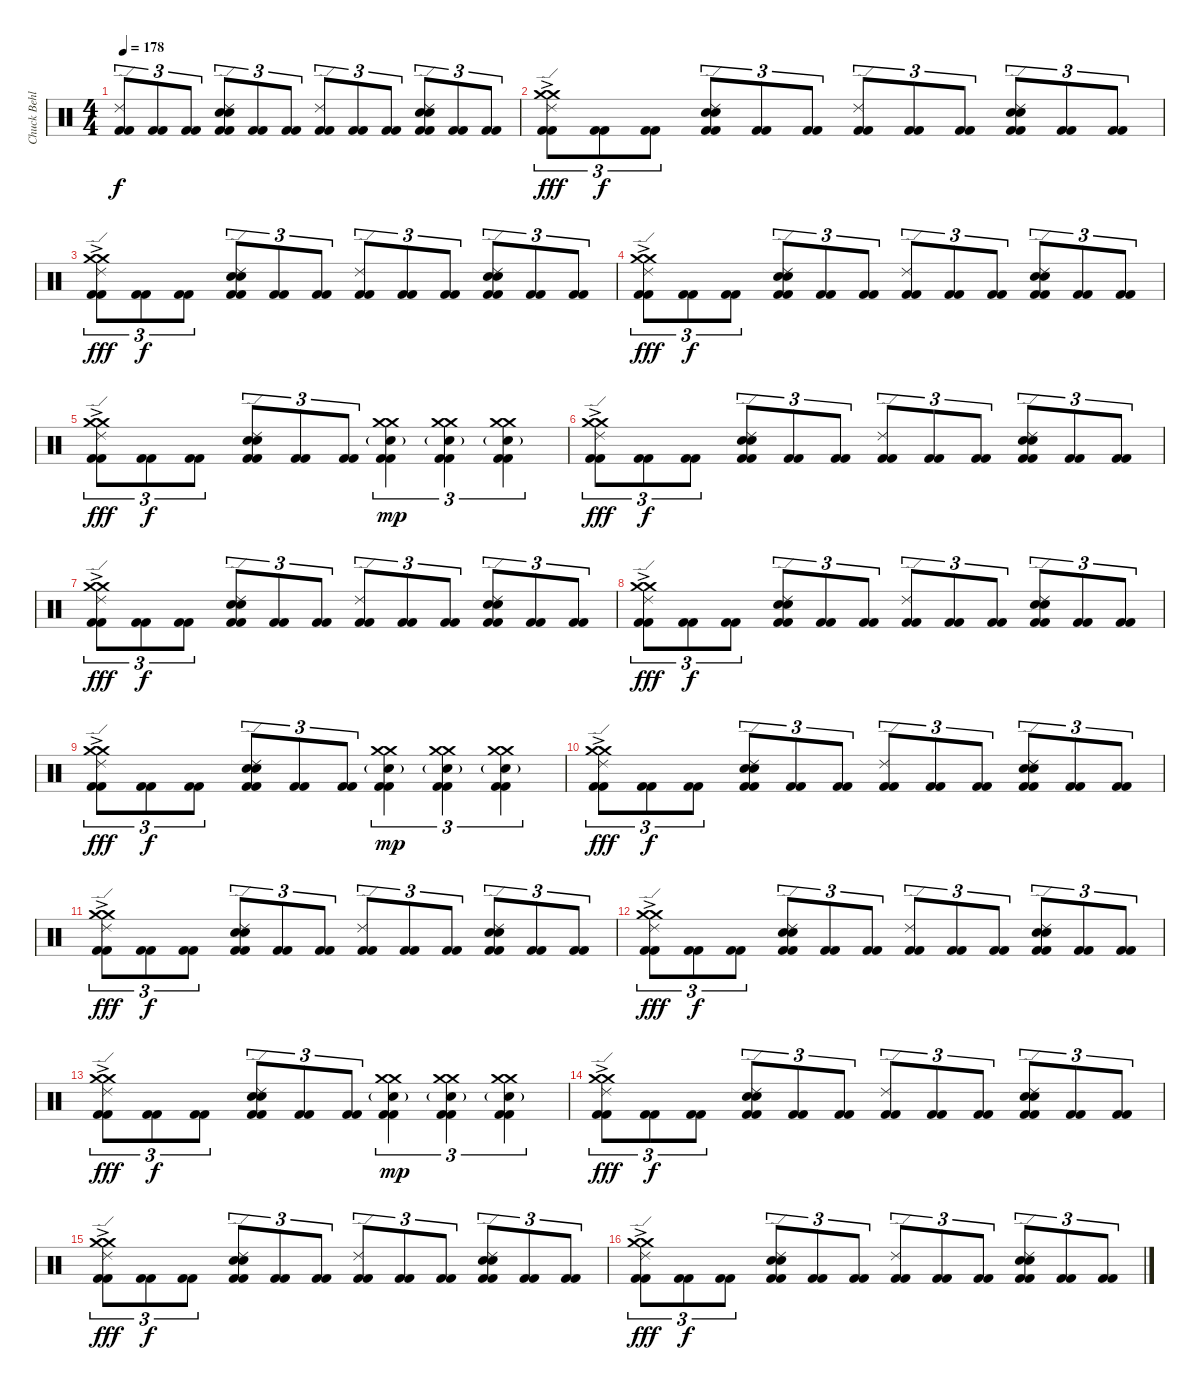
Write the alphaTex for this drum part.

\track ("Chuck Behler" "Chuck Behl") {instrument percussion}
\staff {score}
\articulation defaults
\ts (4 4)
\tempo 178
\clef neutral
\ks c
("Ride (edge) 2" "Kick (hit) 2" "Kick (hit) 2").8{tu (3 2) dy f} ("Kick (hit) 2" "Kick (hit) 2").8{tu (3 2)} ("Kick (hit) 2" "Kick (hit) 2").8{tu (3 2)} ("Ride (edge) 2" "Snare (hit) 2" "Electric Snare (hit)" "Kick (hit) 2" "Kick (hit) 2").8{tu (3 2)} ("Kick (hit) 2" "Kick (hit) 2").8{tu (3 2)} ("Kick (hit) 2" "Kick (hit) 2").8{tu (3 2)} ("Ride (edge) 2" "Kick (hit) 2" "Kick (hit) 2").8{tu (3 2)} ("Kick (hit) 2" "Kick (hit) 2").8{tu (3 2)} ("Kick (hit) 2" "Kick (hit) 2").8{tu (3 2)} ("Ride (edge) 2" "Snare (hit) 2" "Electric Snare (hit)" "Kick (hit) 2" "Kick (hit) 2").8{tu (3 2)} ("Kick (hit) 2" "Kick (hit) 2").8{tu (3 2)} ("Kick (hit) 2" "Kick (hit) 2").8{tu (3 2)} |
("Crash medium (hit)"{ac} "Crash medium (hit)"{ac} "Ride (edge) 2" "Kick (hit) 2" "Kick (hit) 2").8{tu (3 2) dy fff} ("Kick (hit) 2" "Kick (hit) 2").8{tu (3 2) dy f} ("Kick (hit) 2" "Kick (hit) 2").8{tu (3 2)} ("Ride (edge) 2" "Snare (hit) 2" "Electric Snare (hit)" "Kick (hit) 2" "Kick (hit) 2").8{tu (3 2)} ("Kick (hit) 2" "Kick (hit) 2").8{tu (3 2)} ("Kick (hit) 2" "Kick (hit) 2").8{tu (3 2)} ("Ride (edge) 2" "Kick (hit) 2" "Kick (hit) 2").8{tu (3 2)} ("Kick (hit) 2" "Kick (hit) 2").8{tu (3 2)} ("Kick (hit) 2" "Kick (hit) 2").8{tu (3 2)} ("Ride (edge) 2" "Snare (hit) 2" "Electric Snare (hit)" "Kick (hit) 2" "Kick (hit) 2").8{tu (3 2)} ("Kick (hit) 2" "Kick (hit) 2").8{tu (3 2)} ("Kick (hit) 2" "Kick (hit) 2").8{tu (3 2)} |
("Crash medium (hit)"{ac} "Crash medium (hit)"{ac} "Ride (edge) 2" "Kick (hit) 2" "Kick (hit) 2").8{tu (3 2) dy fff} ("Kick (hit) 2" "Kick (hit) 2").8{tu (3 2) dy f} ("Kick (hit) 2" "Kick (hit) 2").8{tu (3 2)} ("Ride (edge) 2" "Snare (hit) 2" "Electric Snare (hit)" "Kick (hit) 2" "Kick (hit) 2").8{tu (3 2)} ("Kick (hit) 2" "Kick (hit) 2").8{tu (3 2)} ("Kick (hit) 2" "Kick (hit) 2").8{tu (3 2)} ("Ride (edge) 2" "Kick (hit) 2" "Kick (hit) 2").8{tu (3 2)} ("Kick (hit) 2" "Kick (hit) 2").8{tu (3 2)} ("Kick (hit) 2" "Kick (hit) 2").8{tu (3 2)} ("Ride (edge) 2" "Snare (hit) 2" "Electric Snare (hit)" "Kick (hit) 2" "Kick (hit) 2").8{tu (3 2)} ("Kick (hit) 2" "Kick (hit) 2").8{tu (3 2)} ("Kick (hit) 2" "Kick (hit) 2").8{tu (3 2)} |
("Crash medium (hit)"{ac} "Crash medium (hit)"{ac} "Ride (edge) 2" "Kick (hit) 2" "Kick (hit) 2").8{tu (3 2) dy fff} ("Kick (hit) 2" "Kick (hit) 2").8{tu (3 2) dy f} ("Kick (hit) 2" "Kick (hit) 2").8{tu (3 2)} ("Ride (edge) 2" "Snare (hit) 2" "Electric Snare (hit)" "Kick (hit) 2" "Kick (hit) 2").8{tu (3 2)} ("Kick (hit) 2" "Kick (hit) 2").8{tu (3 2)} ("Kick (hit) 2" "Kick (hit) 2").8{tu (3 2)} ("Ride (edge) 2" "Kick (hit) 2" "Kick (hit) 2").8{tu (3 2)} ("Kick (hit) 2" "Kick (hit) 2").8{tu (3 2)} ("Kick (hit) 2" "Kick (hit) 2").8{tu (3 2)} ("Ride (edge) 2" "Snare (hit) 2" "Electric Snare (hit)" "Kick (hit) 2" "Kick (hit) 2").8{tu (3 2)} ("Kick (hit) 2" "Kick (hit) 2").8{tu (3 2)} ("Kick (hit) 2" "Kick (hit) 2").8{tu (3 2)} |
("Crash medium (hit)"{ac} "Crash medium (hit)"{ac} "Ride (edge) 2" "Kick (hit) 2" "Kick (hit) 2").8{tu (3 2) dy fff} ("Kick (hit) 2" "Kick (hit) 2").8{tu (3 2) dy f} ("Kick (hit) 2" "Kick (hit) 2").8{tu (3 2)} ("Ride (edge) 2" "Snare (hit) 2" "Electric Snare (hit)" "Kick (hit) 2" "Kick (hit) 2").8{tu (3 2)} ("Kick (hit) 2" "Kick (hit) 2").8{tu (3 2)} ("Kick (hit) 2" "Kick (hit) 2").8{tu (3 2)} ("Crash medium (hit)" "Crash medium (hit)" "Snare (hit) 2"{g} "Kick (hit) 2" "Kick (hit) 2").4{tu (3 2) dy mp} ("Crash medium (hit)" "Crash medium (hit)" "Snare (hit) 2"{g} "Kick (hit) 2" "Kick (hit) 2").4{tu (3 2)} ("Crash medium (hit)" "Crash medium (hit)" "Snare (hit) 2"{g} "Kick (hit) 2" "Kick (hit) 2").4{tu (3 2)} |
("Crash medium (hit)"{ac} "Crash medium (hit)"{ac} "Ride (edge) 2" "Kick (hit) 2" "Kick (hit) 2").8{tu (3 2) dy fff} ("Kick (hit) 2" "Kick (hit) 2").8{tu (3 2) dy f} ("Kick (hit) 2" "Kick (hit) 2").8{tu (3 2)} ("Ride (edge) 2" "Snare (hit) 2" "Electric Snare (hit)" "Kick (hit) 2" "Kick (hit) 2").8{tu (3 2)} ("Kick (hit) 2" "Kick (hit) 2").8{tu (3 2)} ("Kick (hit) 2" "Kick (hit) 2").8{tu (3 2)} ("Ride (edge) 2" "Kick (hit) 2" "Kick (hit) 2").8{tu (3 2)} ("Kick (hit) 2" "Kick (hit) 2").8{tu (3 2)} ("Kick (hit) 2" "Kick (hit) 2").8{tu (3 2)} ("Ride (edge) 2" "Snare (hit) 2" "Electric Snare (hit)" "Kick (hit) 2" "Kick (hit) 2").8{tu (3 2)} ("Kick (hit) 2" "Kick (hit) 2").8{tu (3 2)} ("Kick (hit) 2" "Kick (hit) 2").8{tu (3 2)} |
("Crash medium (hit)"{ac} "Crash medium (hit)"{ac} "Ride (edge) 2" "Kick (hit) 2" "Kick (hit) 2").8{tu (3 2) dy fff} ("Kick (hit) 2" "Kick (hit) 2").8{tu (3 2) dy f} ("Kick (hit) 2" "Kick (hit) 2").8{tu (3 2)} ("Ride (edge) 2" "Snare (hit) 2" "Electric Snare (hit)" "Kick (hit) 2" "Kick (hit) 2").8{tu (3 2)} ("Kick (hit) 2" "Kick (hit) 2").8{tu (3 2)} ("Kick (hit) 2" "Kick (hit) 2").8{tu (3 2)} ("Ride (edge) 2" "Kick (hit) 2" "Kick (hit) 2").8{tu (3 2)} ("Kick (hit) 2" "Kick (hit) 2").8{tu (3 2)} ("Kick (hit) 2" "Kick (hit) 2").8{tu (3 2)} ("Ride (edge) 2" "Snare (hit) 2" "Electric Snare (hit)" "Kick (hit) 2" "Kick (hit) 2").8{tu (3 2)} ("Kick (hit) 2" "Kick (hit) 2").8{tu (3 2)} ("Kick (hit) 2" "Kick (hit) 2").8{tu (3 2)} |
("Crash medium (hit)"{ac} "Crash medium (hit)"{ac} "Ride (edge) 2" "Kick (hit) 2" "Kick (hit) 2").8{tu (3 2) dy fff} ("Kick (hit) 2" "Kick (hit) 2").8{tu (3 2) dy f} ("Kick (hit) 2" "Kick (hit) 2").8{tu (3 2)} ("Ride (edge) 2" "Snare (hit) 2" "Electric Snare (hit)" "Kick (hit) 2" "Kick (hit) 2").8{tu (3 2)} ("Kick (hit) 2" "Kick (hit) 2").8{tu (3 2)} ("Kick (hit) 2" "Kick (hit) 2").8{tu (3 2)} ("Ride (edge) 2" "Kick (hit) 2" "Kick (hit) 2").8{tu (3 2)} ("Kick (hit) 2" "Kick (hit) 2").8{tu (3 2)} ("Kick (hit) 2" "Kick (hit) 2").8{tu (3 2)} ("Ride (edge) 2" "Snare (hit) 2" "Electric Snare (hit)" "Kick (hit) 2" "Kick (hit) 2").8{tu (3 2)} ("Kick (hit) 2" "Kick (hit) 2").8{tu (3 2)} ("Kick (hit) 2" "Kick (hit) 2").8{tu (3 2)} |
("Crash medium (hit)"{ac} "Crash medium (hit)"{ac} "Ride (edge) 2" "Kick (hit) 2" "Kick (hit) 2").8{tu (3 2) dy fff} ("Kick (hit) 2" "Kick (hit) 2").8{tu (3 2) dy f} ("Kick (hit) 2" "Kick (hit) 2").8{tu (3 2)} ("Ride (edge) 2" "Snare (hit) 2" "Electric Snare (hit)" "Kick (hit) 2" "Kick (hit) 2").8{tu (3 2)} ("Kick (hit) 2" "Kick (hit) 2").8{tu (3 2)} ("Kick (hit) 2" "Kick (hit) 2").8{tu (3 2)} ("Crash medium (hit)" "Crash medium (hit)" "Snare (hit) 2"{g} "Kick (hit) 2" "Kick (hit) 2").4{tu (3 2) dy mp} ("Crash medium (hit)" "Crash medium (hit)" "Snare (hit) 2"{g} "Kick (hit) 2" "Kick (hit) 2").4{tu (3 2)} ("Crash medium (hit)" "Crash medium (hit)" "Snare (hit) 2"{g} "Kick (hit) 2" "Kick (hit) 2").4{tu (3 2)} |
("Crash medium (hit)"{ac} "Crash medium (hit)"{ac} "Ride (edge) 2" "Kick (hit) 2" "Kick (hit) 2").8{tu (3 2) dy fff} ("Kick (hit) 2" "Kick (hit) 2").8{tu (3 2) dy f} ("Kick (hit) 2" "Kick (hit) 2").8{tu (3 2)} ("Ride (edge) 2" "Snare (hit) 2" "Electric Snare (hit)" "Kick (hit) 2" "Kick (hit) 2").8{tu (3 2)} ("Kick (hit) 2" "Kick (hit) 2").8{tu (3 2)} ("Kick (hit) 2" "Kick (hit) 2").8{tu (3 2)} ("Ride (edge) 2" "Kick (hit) 2" "Kick (hit) 2").8{tu (3 2)} ("Kick (hit) 2" "Kick (hit) 2").8{tu (3 2)} ("Kick (hit) 2" "Kick (hit) 2").8{tu (3 2)} ("Ride (edge) 2" "Snare (hit) 2" "Electric Snare (hit)" "Kick (hit) 2" "Kick (hit) 2").8{tu (3 2)} ("Kick (hit) 2" "Kick (hit) 2").8{tu (3 2)} ("Kick (hit) 2" "Kick (hit) 2").8{tu (3 2)} |
("Crash medium (hit)"{ac} "Crash medium (hit)"{ac} "Ride (edge) 2" "Kick (hit) 2" "Kick (hit) 2").8{tu (3 2) dy fff} ("Kick (hit) 2" "Kick (hit) 2").8{tu (3 2) dy f} ("Kick (hit) 2" "Kick (hit) 2").8{tu (3 2)} ("Ride (edge) 2" "Snare (hit) 2" "Electric Snare (hit)" "Kick (hit) 2" "Kick (hit) 2").8{tu (3 2)} ("Kick (hit) 2" "Kick (hit) 2").8{tu (3 2)} ("Kick (hit) 2" "Kick (hit) 2").8{tu (3 2)} ("Ride (edge) 2" "Kick (hit) 2" "Kick (hit) 2").8{tu (3 2)} ("Kick (hit) 2" "Kick (hit) 2").8{tu (3 2)} ("Kick (hit) 2" "Kick (hit) 2").8{tu (3 2)} ("Ride (edge) 2" "Snare (hit) 2" "Electric Snare (hit)" "Kick (hit) 2" "Kick (hit) 2").8{tu (3 2)} ("Kick (hit) 2" "Kick (hit) 2").8{tu (3 2)} ("Kick (hit) 2" "Kick (hit) 2").8{tu (3 2)} |
("Crash medium (hit)"{ac} "Crash medium (hit)"{ac} "Ride (edge) 2" "Kick (hit) 2" "Kick (hit) 2").8{tu (3 2) dy fff} ("Kick (hit) 2" "Kick (hit) 2").8{tu (3 2) dy f} ("Kick (hit) 2" "Kick (hit) 2").8{tu (3 2)} ("Ride (edge) 2" "Snare (hit) 2" "Electric Snare (hit)" "Kick (hit) 2" "Kick (hit) 2").8{tu (3 2)} ("Kick (hit) 2" "Kick (hit) 2").8{tu (3 2)} ("Kick (hit) 2" "Kick (hit) 2").8{tu (3 2)} ("Ride (edge) 2" "Kick (hit) 2" "Kick (hit) 2").8{tu (3 2)} ("Kick (hit) 2" "Kick (hit) 2").8{tu (3 2)} ("Kick (hit) 2" "Kick (hit) 2").8{tu (3 2)} ("Ride (edge) 2" "Snare (hit) 2" "Electric Snare (hit)" "Kick (hit) 2" "Kick (hit) 2").8{tu (3 2)} ("Kick (hit) 2" "Kick (hit) 2").8{tu (3 2)} ("Kick (hit) 2" "Kick (hit) 2").8{tu (3 2)} |
("Crash medium (hit)"{ac} "Crash medium (hit)"{ac} "Ride (edge) 2" "Kick (hit) 2" "Kick (hit) 2").8{tu (3 2) dy fff} ("Kick (hit) 2" "Kick (hit) 2").8{tu (3 2) dy f} ("Kick (hit) 2" "Kick (hit) 2").8{tu (3 2)} ("Ride (edge) 2" "Snare (hit) 2" "Electric Snare (hit)" "Kick (hit) 2" "Kick (hit) 2").8{tu (3 2)} ("Kick (hit) 2" "Kick (hit) 2").8{tu (3 2)} ("Kick (hit) 2" "Kick (hit) 2").8{tu (3 2)} ("Crash medium (hit)" "Crash medium (hit)" "Snare (hit) 2"{g} "Kick (hit) 2" "Kick (hit) 2").4{tu (3 2) dy mp} ("Crash medium (hit)" "Crash medium (hit)" "Snare (hit) 2"{g} "Kick (hit) 2" "Kick (hit) 2").4{tu (3 2)} ("Crash medium (hit)" "Crash medium (hit)" "Snare (hit) 2"{g} "Kick (hit) 2" "Kick (hit) 2").4{tu (3 2)} |
("Crash medium (hit)"{ac} "Crash medium (hit)"{ac} "Ride (edge) 2" "Kick (hit) 2" "Kick (hit) 2").8{tu (3 2) dy fff} ("Kick (hit) 2" "Kick (hit) 2").8{tu (3 2) dy f} ("Kick (hit) 2" "Kick (hit) 2").8{tu (3 2)} ("Ride (edge) 2" "Snare (hit) 2" "Electric Snare (hit)" "Kick (hit) 2" "Kick (hit) 2").8{tu (3 2)} ("Kick (hit) 2" "Kick (hit) 2").8{tu (3 2)} ("Kick (hit) 2" "Kick (hit) 2").8{tu (3 2)} ("Ride (edge) 2" "Kick (hit) 2" "Kick (hit) 2").8{tu (3 2)} ("Kick (hit) 2" "Kick (hit) 2").8{tu (3 2)} ("Kick (hit) 2" "Kick (hit) 2").8{tu (3 2)} ("Ride (edge) 2" "Snare (hit) 2" "Electric Snare (hit)" "Kick (hit) 2" "Kick (hit) 2").8{tu (3 2)} ("Kick (hit) 2" "Kick (hit) 2").8{tu (3 2)} ("Kick (hit) 2" "Kick (hit) 2").8{tu (3 2)} |
("Crash medium (hit)"{ac} "Crash medium (hit)"{ac} "Ride (edge) 2" "Kick (hit) 2" "Kick (hit) 2").8{tu (3 2) dy fff} ("Kick (hit) 2" "Kick (hit) 2").8{tu (3 2) dy f} ("Kick (hit) 2" "Kick (hit) 2").8{tu (3 2)} ("Ride (edge) 2" "Snare (hit) 2" "Electric Snare (hit)" "Kick (hit) 2" "Kick (hit) 2").8{tu (3 2)} ("Kick (hit) 2" "Kick (hit) 2").8{tu (3 2)} ("Kick (hit) 2" "Kick (hit) 2").8{tu (3 2)} ("Ride (edge) 2" "Kick (hit) 2" "Kick (hit) 2").8{tu (3 2)} ("Kick (hit) 2" "Kick (hit) 2").8{tu (3 2)} ("Kick (hit) 2" "Kick (hit) 2").8{tu (3 2)} ("Ride (edge) 2" "Snare (hit) 2" "Electric Snare (hit)" "Kick (hit) 2" "Kick (hit) 2").8{tu (3 2)} ("Kick (hit) 2" "Kick (hit) 2").8{tu (3 2)} ("Kick (hit) 2" "Kick (hit) 2").8{tu (3 2)} |
("Crash medium (hit)"{ac} "Crash medium (hit)"{ac} "Ride (edge) 2" "Kick (hit) 2" "Kick (hit) 2").8{tu (3 2) dy fff} ("Kick (hit) 2" "Kick (hit) 2").8{tu (3 2) dy f} ("Kick (hit) 2" "Kick (hit) 2").8{tu (3 2)} ("Ride (edge) 2" "Snare (hit) 2" "Electric Snare (hit)" "Kick (hit) 2" "Kick (hit) 2").8{tu (3 2)} ("Kick (hit) 2" "Kick (hit) 2").8{tu (3 2)} ("Kick (hit) 2" "Kick (hit) 2").8{tu (3 2)} ("Ride (edge) 2" "Kick (hit) 2" "Kick (hit) 2").8{tu (3 2)} ("Kick (hit) 2" "Kick (hit) 2").8{tu (3 2)} ("Kick (hit) 2" "Kick (hit) 2").8{tu (3 2)} ("Ride (edge) 2" "Snare (hit) 2" "Electric Snare (hit)" "Kick (hit) 2" "Kick (hit) 2").8{tu (3 2)} ("Kick (hit) 2" "Kick (hit) 2").8{tu (3 2)} ("Kick (hit) 2" "Kick (hit) 2").8{tu (3 2)}
